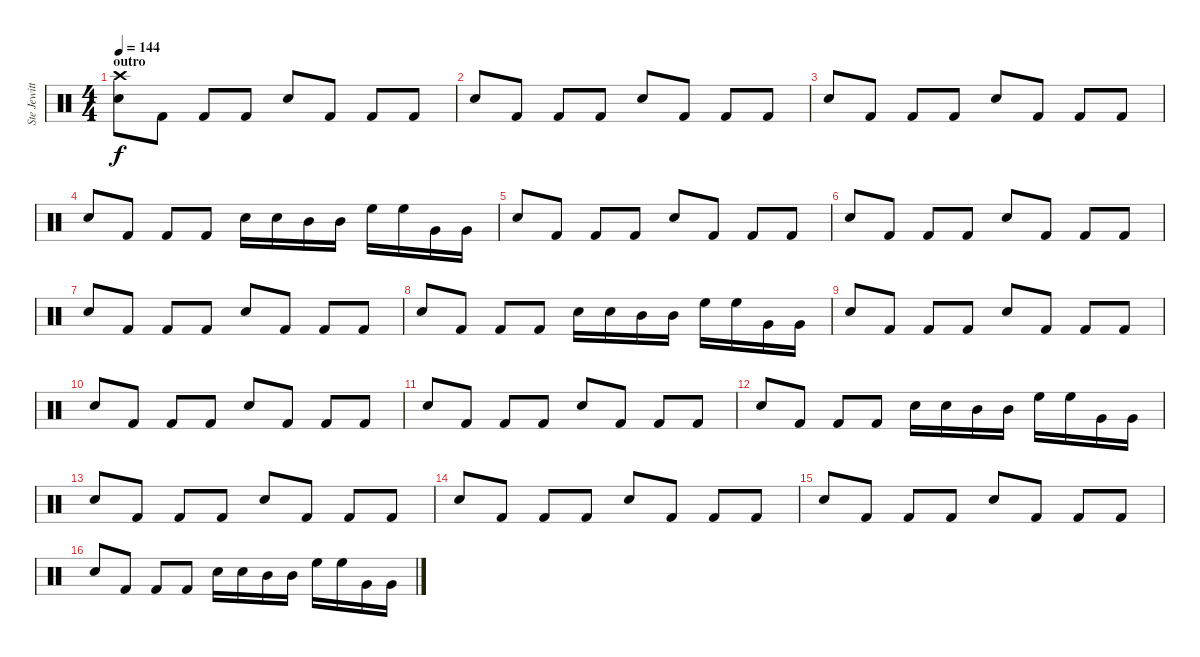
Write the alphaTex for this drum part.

\track ("Ste Jewitt (Drummer)" "Ste Jewitt") {instrument percussion}
\staff {score}
\articulation defaults
\ts (4 4)
\section ("" "outro")
\tempo 144
\clef neutral
\ks c
("Crash high (hit)" "Snare (hit) 2").8{dy f} "Kick (hit) 2".8 "Kick (hit) 2".8 "Kick (hit) 2".8 "Snare (hit) 2".8 "Kick (hit) 2".8 "Kick (hit) 2".8 "Kick (hit) 2".8 |
"Snare (hit) 2".8 "Kick (hit) 2".8 "Kick (hit) 2".8 "Kick (hit) 2".8 "Snare (hit) 2".8 "Kick (hit) 2".8 "Kick (hit) 2".8 "Kick (hit) 2".8 |
"Snare (hit) 2".8 "Kick (hit) 2".8 "Kick (hit) 2".8 "Kick (hit) 2".8 "Snare (hit) 2".8 "Kick (hit) 2".8 "Kick (hit) 2".8 "Kick (hit) 2".8 |
"Snare (hit) 2".8 "Kick (hit) 2".8 "Kick (hit) 2".8 "Kick (hit) 2".8 "Snare (hit) 2".16 "Snare (hit) 2".16 "Mid Tom (hit)".16 "Mid Tom (hit)".16 "High Floor Tom (hit)".16 "High Floor Tom (hit)".16 "Very Low Tom (hit)".16 "Very Low Tom (hit)".16 |
"Snare (hit) 2".8 "Kick (hit) 2".8 "Kick (hit) 2".8 "Kick (hit) 2".8 "Snare (hit) 2".8 "Kick (hit) 2".8 "Kick (hit) 2".8 "Kick (hit) 2".8 |
"Snare (hit) 2".8 "Kick (hit) 2".8 "Kick (hit) 2".8 "Kick (hit) 2".8 "Snare (hit) 2".8 "Kick (hit) 2".8 "Kick (hit) 2".8 "Kick (hit) 2".8 |
"Snare (hit) 2".8 "Kick (hit) 2".8 "Kick (hit) 2".8 "Kick (hit) 2".8 "Snare (hit) 2".8 "Kick (hit) 2".8 "Kick (hit) 2".8 "Kick (hit) 2".8 |
"Snare (hit) 2".8 "Kick (hit) 2".8 "Kick (hit) 2".8 "Kick (hit) 2".8 "Snare (hit) 2".16 "Snare (hit) 2".16 "Mid Tom (hit)".16 "Mid Tom (hit)".16 "High Floor Tom (hit)".16 "High Floor Tom (hit)".16 "Very Low Tom (hit)".16 "Very Low Tom (hit)".16 |
"Snare (hit) 2".8{volume 13} "Kick (hit) 2".8 "Kick (hit) 2".8 "Kick (hit) 2".8 "Snare (hit) 2".8 "Kick (hit) 2".8 "Kick (hit) 2".8 "Kick (hit) 2".8 |
"Snare (hit) 2".8 "Kick (hit) 2".8 "Kick (hit) 2".8 "Kick (hit) 2".8 "Snare (hit) 2".8 "Kick (hit) 2".8 "Kick (hit) 2".8 "Kick (hit) 2".8 |
"Snare (hit) 2".8{volume 10} "Kick (hit) 2".8 "Kick (hit) 2".8 "Kick (hit) 2".8 "Snare (hit) 2".8 "Kick (hit) 2".8 "Kick (hit) 2".8 "Kick (hit) 2".8 |
"Snare (hit) 2".8 "Kick (hit) 2".8 "Kick (hit) 2".8 "Kick (hit) 2".8 "Snare (hit) 2".16 "Snare (hit) 2".16 "Mid Tom (hit)".16 "Mid Tom (hit)".16 "High Floor Tom (hit)".16 "High Floor Tom (hit)".16 "Very Low Tom (hit)".16 "Very Low Tom (hit)".16 |
"Snare (hit) 2".8{volume 7} "Kick (hit) 2".8 "Kick (hit) 2".8 "Kick (hit) 2".8 "Snare (hit) 2".8 "Kick (hit) 2".8 "Kick (hit) 2".8 "Kick (hit) 2".8 |
"Snare (hit) 2".8 "Kick (hit) 2".8 "Kick (hit) 2".8 "Kick (hit) 2".8 "Snare (hit) 2".8 "Kick (hit) 2".8 "Kick (hit) 2".8 "Kick (hit) 2".8 |
"Snare (hit) 2".8{volume 4} "Kick (hit) 2".8 "Kick (hit) 2".8 "Kick (hit) 2".8 "Snare (hit) 2".8 "Kick (hit) 2".8 "Kick (hit) 2".8 "Kick (hit) 2".8 |
"Snare (hit) 2".8 "Kick (hit) 2".8 "Kick (hit) 2".8 "Kick (hit) 2".8 "Snare (hit) 2".16 "Snare (hit) 2".16 "Mid Tom (hit)".16 "Mid Tom (hit)".16 "High Floor Tom (hit)".16 "High Floor Tom (hit)".16 "Very Low Tom (hit)".16 "Very Low Tom (hit)".16
